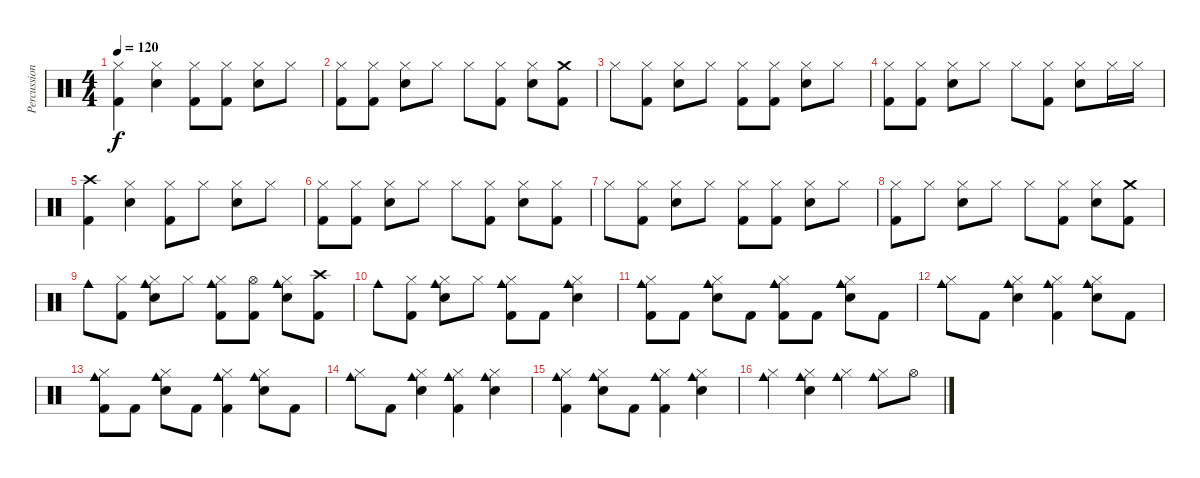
\track ("Percussions" "Percussion") {instrument percussion}
\staff {score}
\articulation defaults
\ts (4 4)
\tempo 120
\clef neutral
\ks c
("Hi-Hat (closed)" "Kick (hit) 2").4{dy f} ("Hi-Hat (closed)" "Snare (hit) 2").4 ("Hi-Hat (closed)" "Kick (hit) 2").8 ("Hi-Hat (closed)" "Kick (hit) 2").8 ("Hi-Hat (closed)" "Snare (hit) 2").8 "Hi-Hat (closed)".8 |
("Hi-Hat (closed)" "Kick (hit) 2").8 ("Hi-Hat (closed)" "Kick (hit) 2").8 ("Hi-Hat (closed)" "Snare (hit) 2").8 "Hi-Hat (closed)".8 "Hi-Hat (closed)".8 ("Hi-Hat (closed)" "Kick (hit) 2").8 ("Hi-Hat (closed)" "Snare (hit) 2").8 ("Crash medium (hit)" "Kick (hit) 2").8 |
"Hi-Hat (closed)".8 ("Hi-Hat (closed)" "Kick (hit) 2").8 ("Hi-Hat (closed)" "Snare (hit) 2").8 "Hi-Hat (closed)".8 ("Hi-Hat (closed)" "Kick (hit) 2").8 ("Hi-Hat (closed)" "Kick (hit) 2").8 ("Hi-Hat (closed)" "Snare (hit) 2").8 "Hi-Hat (closed)".8 |
("Hi-Hat (closed)" "Kick (hit) 2").8 ("Hi-Hat (closed)" "Kick (hit) 2").8 ("Hi-Hat (closed)" "Snare (hit) 2").8 "Hi-Hat (closed)".8 "Hi-Hat (closed)".8 ("Hi-Hat (closed)" "Kick (hit) 2").8 ("Hi-Hat (closed)" "Snare (hit) 2").8 "Hi-Hat (closed)".16 "Hi-Hat (closed)".16 |
("Crash high (hit)" "Kick (hit) 2").4 ("Hi-Hat (closed)" "Snare (hit) 2").4 ("Hi-Hat (closed)" "Kick (hit) 2").8 "Hi-Hat (closed)".8 ("Hi-Hat (closed)" "Snare (hit) 2").8 "Hi-Hat (closed)".8 |
("Hi-Hat (closed)" "Kick (hit) 2").8 ("Hi-Hat (closed)" "Kick (hit) 2").8 ("Hi-Hat (closed)" "Snare (hit) 2").8 "Hi-Hat (closed)".8 "Hi-Hat (closed)".8 ("Hi-Hat (closed)" "Kick (hit) 2").8 ("Hi-Hat (closed)" "Snare (hit) 2").8 ("Hi-Hat (closed)" "Kick (hit) 2").8 |
"Hi-Hat (closed)".8 ("Hi-Hat (closed)" "Kick (hit) 2").8 ("Hi-Hat (closed)" "Snare (hit) 2").8 "Hi-Hat (closed)".8 ("Hi-Hat (closed)" "Kick (hit) 2").8 ("Hi-Hat (closed)" "Kick (hit) 2").8 ("Hi-Hat (closed)" "Snare (hit) 2").8 "Hi-Hat (closed)".8 |
("Hi-Hat (closed)" "Kick (hit) 2").8 "Hi-Hat (closed)".8 ("Hi-Hat (closed)" "Snare (hit) 2").8 "Hi-Hat (closed)".8 "Hi-Hat (closed)".8 ("Hi-Hat (closed)" "Kick (hit) 2").8 ("Hi-Hat (closed)" "Snare (hit) 2").8 ("Crash medium (hit)" "Kick (hit) 2").8 |
"Cowbell medium (hit)".8 ("Hi-Hat (closed)" "Kick (hit) 2").8 ("Cowbell medium (hit)" "Hi-Hat (closed)" "Snare (hit) 2").8 "Hi-Hat (closed)".8 ("Cowbell medium (hit)" "Hi-Hat (closed)" "Kick (hit) 2").8 ("Hi-Hat (open)" "Kick (hit) 2").8 ("Cowbell medium (hit)" "Hi-Hat (closed)" "Snare (hit) 2").8 ("Crash high (hit)" "Kick (hit) 2").8 |
"Cowbell medium (hit)".8 ("Hi-Hat (closed)" "Kick (hit) 2").8 ("Cowbell medium (hit)" "Hi-Hat (closed)" "Snare (hit) 2").8 "Hi-Hat (closed)".8 ("Cowbell medium (hit)" "Hi-Hat (closed)" "Kick (hit) 2").8 "Kick (hit) 2".8 ("Cowbell medium (hit)" "Hi-Hat (closed)" "Snare (hit) 2").4 |
("Cowbell medium (hit)" "Hi-Hat (closed)" "Kick (hit) 2").8 "Kick (hit) 2".8 ("Cowbell medium (hit)" "Hi-Hat (closed)" "Snare (hit) 2").8 "Kick (hit) 2".8 ("Cowbell medium (hit)" "Hi-Hat (closed)" "Kick (hit) 2").8 "Kick (hit) 2".8 ("Cowbell medium (hit)" "Hi-Hat (closed)" "Snare (hit) 2").8 "Kick (hit) 2".8 |
("Cowbell medium (hit)" "Hi-Hat (closed)").8 "Kick (hit) 2".8 ("Cowbell medium (hit)" "Hi-Hat (closed)" "Snare (hit) 2").4 ("Cowbell medium (hit)" "Hi-Hat (closed)" "Kick (hit) 2").4 ("Cowbell medium (hit)" "Hi-Hat (closed)" "Snare (hit) 2").8 "Kick (hit) 2".8 |
("Cowbell medium (hit)" "Hi-Hat (closed)" "Kick (hit) 2").8 "Kick (hit) 2".8 ("Cowbell medium (hit)" "Hi-Hat (closed)" "Snare (hit) 2").8 "Kick (hit) 2".8 ("Cowbell medium (hit)" "Hi-Hat (closed)" "Kick (hit) 2").4 ("Cowbell medium (hit)" "Hi-Hat (closed)" "Snare (hit) 2").8 "Kick (hit) 2".8 |
("Cowbell medium (hit)" "Hi-Hat (closed)").8 "Kick (hit) 2".8 ("Cowbell medium (hit)" "Hi-Hat (closed)" "Snare (hit) 2").4 ("Cowbell medium (hit)" "Hi-Hat (closed)" "Kick (hit) 2").4 ("Cowbell medium (hit)" "Hi-Hat (closed)" "Snare (hit) 2").4 |
("Cowbell medium (hit)" "Hi-Hat (closed)" "Kick (hit) 2").4 ("Cowbell medium (hit)" "Hi-Hat (closed)" "Snare (hit) 2").8 "Kick (hit) 2".8 ("Cowbell medium (hit)" "Hi-Hat (closed)" "Kick (hit) 2").4 ("Cowbell medium (hit)" "Hi-Hat (closed)" "Snare (hit) 2").4 |
("Cowbell medium (hit)" "Hi-Hat (closed)").4 ("Cowbell medium (hit)" "Hi-Hat (closed)" "Snare (hit) 2").4 ("Cowbell medium (hit)" "Hi-Hat (closed)").4 ("Cowbell medium (hit)" "Hi-Hat (closed)").8 "Hi-Hat (open)".8
